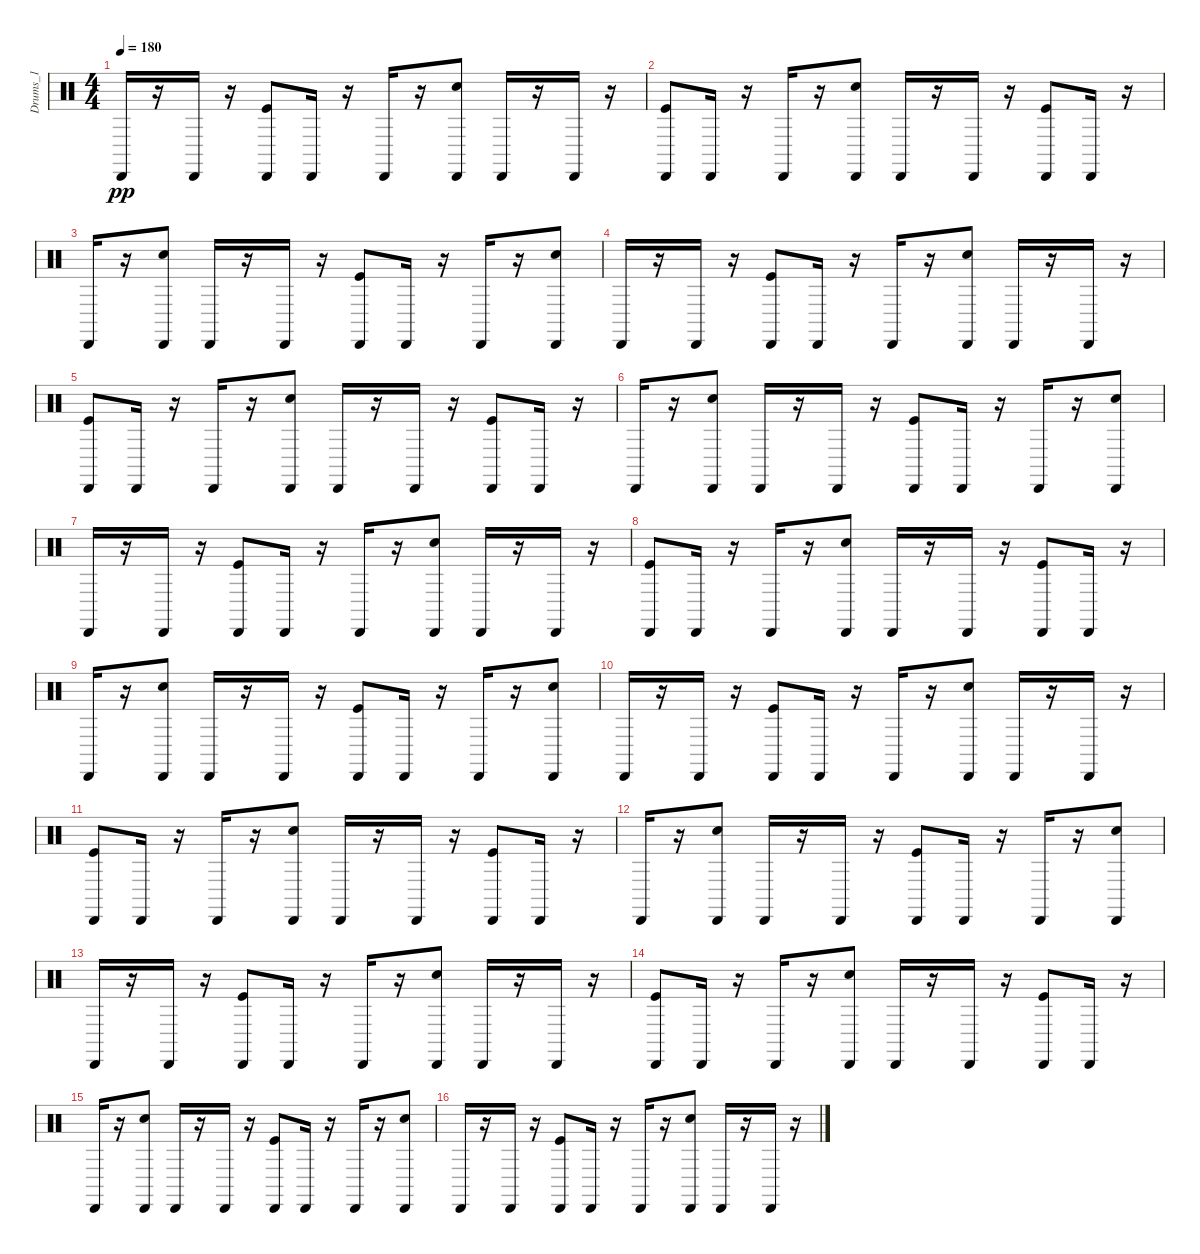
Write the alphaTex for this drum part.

\track ("Drums_1" "Drums_1") {instrument percussion}
\staff {score}
\articulation defaults
\ts (4 4)
\tempo 180
\clef neutral
\ks c "Cabasa (hit)".16{dy pp}
r.16 "Cabasa (hit)".16 r.16 ("Kick (hit)" "Cabasa (hit)").8 "Cabasa (hit)".16 r.16 "Cabasa (hit)".16 r.16 ("Snare (hit) 2" "Cabasa (hit)").8 "Cabasa (hit)".16 r.16 "Cabasa (hit)".16 r.16 |
("Kick (hit)" "Cabasa (hit)").8 "Cabasa (hit)".16 r.16 "Cabasa (hit)".16 r.16 ("Snare (hit) 2" "Cabasa (hit)").8 "Cabasa (hit)".16 r.16 "Cabasa (hit)".16 r.16 ("Kick (hit)" "Cabasa (hit)").8 "Cabasa (hit)".16 r.16 |
"Cabasa (hit)".16 r.16 ("Snare (hit) 2" "Cabasa (hit)").8 "Cabasa (hit)".16 r.16 "Cabasa (hit)".16 r.16 ("Kick (hit)" "Cabasa (hit)").8 "Cabasa (hit)".16 r.16 "Cabasa (hit)".16 r.16 ("Snare (hit) 2" "Cabasa (hit)").8 |
"Cabasa (hit)".16 r.16 "Cabasa (hit)".16 r.16 ("Kick (hit)" "Cabasa (hit)").8 "Cabasa (hit)".16 r.16 "Cabasa (hit)".16 r.16 ("Snare (hit) 2" "Cabasa (hit)").8 "Cabasa (hit)".16 r.16 "Cabasa (hit)".16 r.16 |
("Kick (hit)" "Cabasa (hit)").8 "Cabasa (hit)".16 r.16 "Cabasa (hit)".16 r.16 ("Snare (hit) 2" "Cabasa (hit)").8 "Cabasa (hit)".16 r.16 "Cabasa (hit)".16 r.16 ("Kick (hit)" "Cabasa (hit)").8 "Cabasa (hit)".16 r.16 |
"Cabasa (hit)".16 r.16 ("Snare (hit) 2" "Cabasa (hit)").8 "Cabasa (hit)".16 r.16 "Cabasa (hit)".16 r.16 ("Kick (hit)" "Cabasa (hit)").8 "Cabasa (hit)".16 r.16 "Cabasa (hit)".16 r.16 ("Snare (hit) 2" "Cabasa (hit)").8 |
"Cabasa (hit)".16 r.16 "Cabasa (hit)".16 r.16 ("Kick (hit)" "Cabasa (hit)").8 "Cabasa (hit)".16 r.16 "Cabasa (hit)".16 r.16 ("Snare (hit) 2" "Cabasa (hit)").8 "Cabasa (hit)".16 r.16 "Cabasa (hit)".16 r.16 |
("Kick (hit)" "Cabasa (hit)").8 "Cabasa (hit)".16 r.16 "Cabasa (hit)".16 r.16 ("Snare (hit) 2" "Cabasa (hit)").8 "Cabasa (hit)".16 r.16 "Cabasa (hit)".16 r.16 ("Kick (hit)" "Cabasa (hit)").8 "Cabasa (hit)".16 r.16 |
"Cabasa (hit)".16 r.16 ("Snare (hit) 2" "Cabasa (hit)").8 "Cabasa (hit)".16 r.16 "Cabasa (hit)".16 r.16 ("Kick (hit)" "Cabasa (hit)").8 "Cabasa (hit)".16 r.16 "Cabasa (hit)".16 r.16 ("Snare (hit) 2" "Cabasa (hit)").8 |
"Cabasa (hit)".16 r.16 "Cabasa (hit)".16 r.16 ("Kick (hit)" "Cabasa (hit)").8 "Cabasa (hit)".16 r.16 "Cabasa (hit)".16 r.16 ("Snare (hit) 2" "Cabasa (hit)").8 "Cabasa (hit)".16 r.16 "Cabasa (hit)".16 r.16 |
("Kick (hit)" "Cabasa (hit)").8 "Cabasa (hit)".16 r.16 "Cabasa (hit)".16 r.16 ("Snare (hit) 2" "Cabasa (hit)").8 "Cabasa (hit)".16 r.16 "Cabasa (hit)".16 r.16 ("Kick (hit)" "Cabasa (hit)").8 "Cabasa (hit)".16 r.16 |
"Cabasa (hit)".16 r.16 ("Snare (hit) 2" "Cabasa (hit)").8 "Cabasa (hit)".16 r.16 "Cabasa (hit)".16 r.16 ("Kick (hit)" "Cabasa (hit)").8 "Cabasa (hit)".16 r.16 "Cabasa (hit)".16 r.16 ("Snare (hit) 2" "Cabasa (hit)").8 |
"Cabasa (hit)".16 r.16 "Cabasa (hit)".16 r.16 ("Kick (hit)" "Cabasa (hit)").8 "Cabasa (hit)".16 r.16 "Cabasa (hit)".16 r.16 ("Snare (hit) 2" "Cabasa (hit)").8 "Cabasa (hit)".16 r.16 "Cabasa (hit)".16 r.16 |
("Kick (hit)" "Cabasa (hit)").8 "Cabasa (hit)".16 r.16 "Cabasa (hit)".16 r.16 ("Snare (hit) 2" "Cabasa (hit)").8 "Cabasa (hit)".16 r.16 "Cabasa (hit)".16 r.16 ("Kick (hit)" "Cabasa (hit)").8 "Cabasa (hit)".16 r.16 |
"Cabasa (hit)".16 r.16 ("Snare (hit) 2" "Cabasa (hit)").8 "Cabasa (hit)".16 r.16 "Cabasa (hit)".16 r.16 ("Kick (hit)" "Cabasa (hit)").8 "Cabasa (hit)".16 r.16 "Cabasa (hit)".16 r.16 ("Snare (hit) 2" "Cabasa (hit)").8 |
"Cabasa (hit)".16 r.16 "Cabasa (hit)".16 r.16 ("Kick (hit)" "Cabasa (hit)").8 "Cabasa (hit)".16 r.16 "Cabasa (hit)".16 r.16 ("Snare (hit) 2" "Cabasa (hit)").8 "Cabasa (hit)".16 r.16 "Cabasa (hit)".16 r.16
